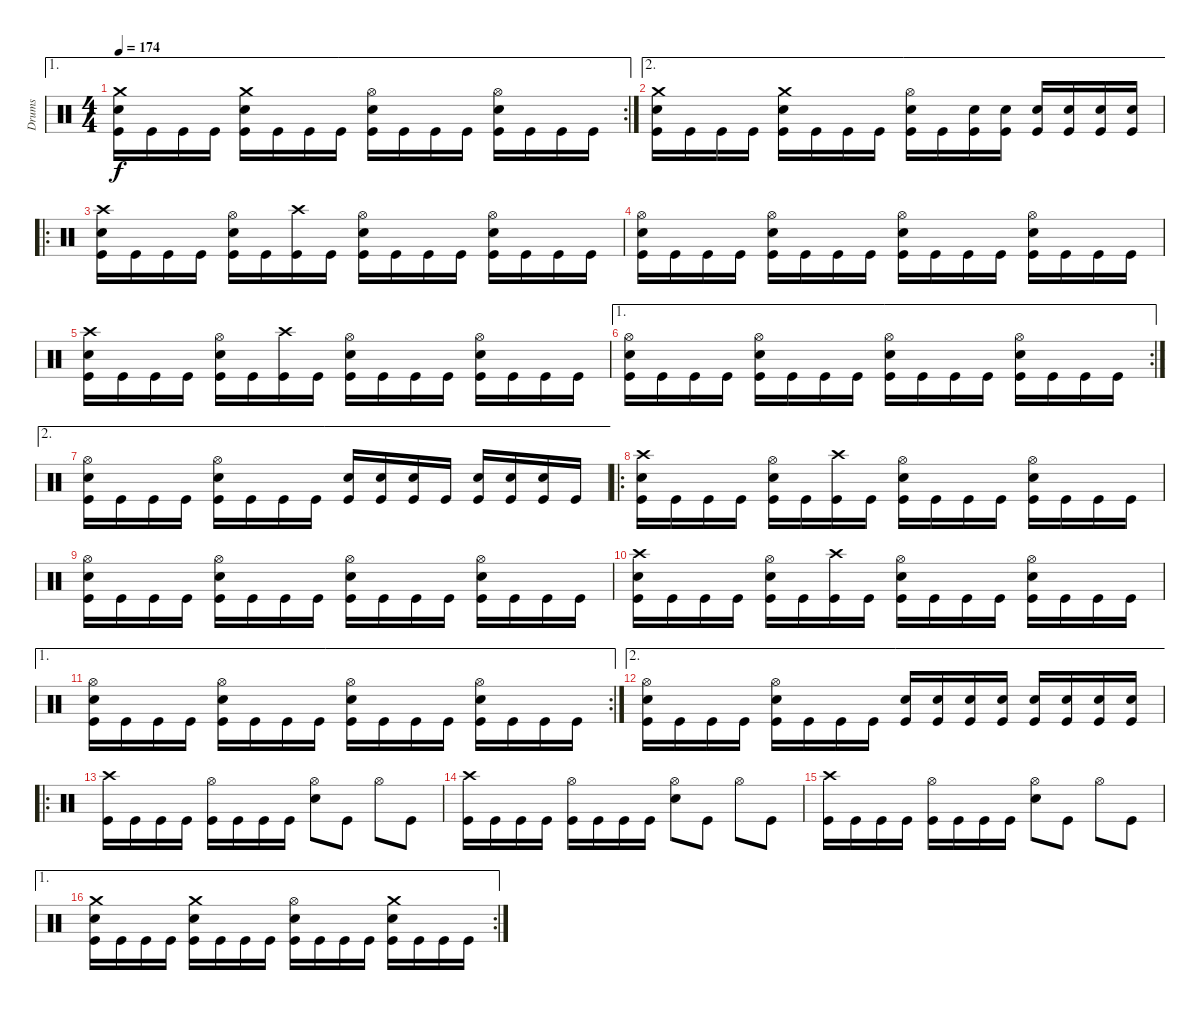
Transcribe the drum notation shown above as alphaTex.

\track ("Drums" "Drums") {instrument percussion}
\staff {score}
\articulation defaults
\ae 1
\rc 2
\ts (4 4)
\tempo 174
\clef neutral
\ks c
("Crash medium (hit)" "Electric Snare (hit)" "Kick (hit)").16{dy f} "Kick (hit)".16 "Kick (hit)".16 "Kick (hit)".16 ("Crash medium (hit)" "Electric Snare (hit)" "Kick (hit)").16 "Kick (hit)".16 "Kick (hit)".16 "Kick (hit)".16 ("Hi-Hat (open)" "Electric Snare (hit)" "Kick (hit)").16 "Kick (hit)".16 "Kick (hit)".16 "Kick (hit)".16 ("Hi-Hat (open)" "Electric Snare (hit)" "Kick (hit)").16 "Kick (hit)".16 "Kick (hit)".16 "Kick (hit)".16 |
\ae 2
("Crash medium (hit)" "Electric Snare (hit)" "Kick (hit)").16 "Kick (hit)".16 "Kick (hit)".16 "Kick (hit)".16 ("Crash medium (hit)" "Electric Snare (hit)" "Kick (hit)").16 "Kick (hit)".16 "Kick (hit)".16 "Kick (hit)".16 ("Hi-Hat (open)" "Electric Snare (hit)" "Kick (hit)").16 "Kick (hit)".16 ("Electric Snare (hit)" "Kick (hit)").16 ("Electric Snare (hit)" "Kick (hit)").16 ("Electric Snare (hit)" "Kick (hit)").16 ("Electric Snare (hit)" "Kick (hit)").16 ("Electric Snare (hit)" "Kick (hit)").16 ("Electric Snare (hit)" "Kick (hit)").16 |
\ro
("Crash high (hit)" "Electric Snare (hit)" "Kick (hit)").16 "Kick (hit)".16 "Kick (hit)".16 "Kick (hit)".16 ("Hi-Hat (open)" "Electric Snare (hit)" "Kick (hit)").16 "Kick (hit)".16 ("Crash high (hit)" "Kick (hit)").16 "Kick (hit)".16 ("Hi-Hat (open)" "Electric Snare (hit)" "Kick (hit)").16 "Kick (hit)".16 "Kick (hit)".16 "Kick (hit)".16 ("Hi-Hat (open)" "Electric Snare (hit)" "Kick (hit)").16 "Kick (hit)".16 "Kick (hit)".16 "Kick (hit)".16 |
("Hi-Hat (open)" "Electric Snare (hit)" "Kick (hit)").16 "Kick (hit)".16 "Kick (hit)".16 "Kick (hit)".16 ("Hi-Hat (open)" "Electric Snare (hit)" "Kick (hit)").16 "Kick (hit)".16 "Kick (hit)".16 "Kick (hit)".16 ("Hi-Hat (open)" "Electric Snare (hit)" "Kick (hit)").16 "Kick (hit)".16 "Kick (hit)".16 "Kick (hit)".16 ("Hi-Hat (open)" "Electric Snare (hit)" "Kick (hit)").16 "Kick (hit)".16 "Kick (hit)".16 "Kick (hit)".16 |
("Crash high (hit)" "Electric Snare (hit)" "Kick (hit)").16 "Kick (hit)".16 "Kick (hit)".16 "Kick (hit)".16 ("Hi-Hat (open)" "Electric Snare (hit)" "Kick (hit)").16 "Kick (hit)".16 ("Crash high (hit)" "Kick (hit)").16 "Kick (hit)".16 ("Hi-Hat (open)" "Electric Snare (hit)" "Kick (hit)").16 "Kick (hit)".16 "Kick (hit)".16 "Kick (hit)".16 ("Hi-Hat (open)" "Electric Snare (hit)" "Kick (hit)").16 "Kick (hit)".16 "Kick (hit)".16 "Kick (hit)".16 |
\ae 1
\rc 2
("Hi-Hat (open)" "Electric Snare (hit)" "Kick (hit)").16 "Kick (hit)".16 "Kick (hit)".16 "Kick (hit)".16 ("Hi-Hat (open)" "Electric Snare (hit)" "Kick (hit)").16 "Kick (hit)".16 "Kick (hit)".16 "Kick (hit)".16 ("Hi-Hat (open)" "Electric Snare (hit)" "Kick (hit)").16 "Kick (hit)".16 "Kick (hit)".16 "Kick (hit)".16 ("Hi-Hat (open)" "Electric Snare (hit)" "Kick (hit)").16 "Kick (hit)".16 "Kick (hit)".16 "Kick (hit)".16 |
\ae 2
("Hi-Hat (open)" "Electric Snare (hit)" "Kick (hit)").16 "Kick (hit)".16 "Kick (hit)".16 "Kick (hit)".16 ("Hi-Hat (open)" "Electric Snare (hit)" "Kick (hit)").16 "Kick (hit)".16 "Kick (hit)".16 "Kick (hit)".16 ("Electric Snare (hit)" "Kick (hit)").16 ("Electric Snare (hit)" "Kick (hit)").16 ("Electric Snare (hit)" "Kick (hit)").16 "Kick (hit)".16 ("Electric Snare (hit)" "Kick (hit)").16 ("Electric Snare (hit)" "Kick (hit)").16 ("Electric Snare (hit)" "Kick (hit)").16 "Kick (hit)".16 |
\ro
("Crash high (hit)" "Electric Snare (hit)" "Kick (hit)").16 "Kick (hit)".16 "Kick (hit)".16 "Kick (hit)".16 ("Hi-Hat (open)" "Electric Snare (hit)" "Kick (hit)").16 "Kick (hit)".16 ("Crash high (hit)" "Kick (hit)").16 "Kick (hit)".16 ("Hi-Hat (open)" "Electric Snare (hit)" "Kick (hit)").16 "Kick (hit)".16 "Kick (hit)".16 "Kick (hit)".16 ("Hi-Hat (open)" "Electric Snare (hit)" "Kick (hit)").16 "Kick (hit)".16 "Kick (hit)".16 "Kick (hit)".16 |
("Hi-Hat (open)" "Electric Snare (hit)" "Kick (hit)").16 "Kick (hit)".16 "Kick (hit)".16 "Kick (hit)".16 ("Hi-Hat (open)" "Electric Snare (hit)" "Kick (hit)").16 "Kick (hit)".16 "Kick (hit)".16 "Kick (hit)".16 ("Hi-Hat (open)" "Electric Snare (hit)" "Kick (hit)").16 "Kick (hit)".16 "Kick (hit)".16 "Kick (hit)".16 ("Hi-Hat (open)" "Electric Snare (hit)" "Kick (hit)").16 "Kick (hit)".16 "Kick (hit)".16 "Kick (hit)".16 |
("Crash high (hit)" "Electric Snare (hit)" "Kick (hit)").16 "Kick (hit)".16 "Kick (hit)".16 "Kick (hit)".16 ("Hi-Hat (open)" "Electric Snare (hit)" "Kick (hit)").16 "Kick (hit)".16 ("Crash high (hit)" "Kick (hit)").16 "Kick (hit)".16 ("Hi-Hat (open)" "Electric Snare (hit)" "Kick (hit)").16 "Kick (hit)".16 "Kick (hit)".16 "Kick (hit)".16 ("Hi-Hat (open)" "Electric Snare (hit)" "Kick (hit)").16 "Kick (hit)".16 "Kick (hit)".16 "Kick (hit)".16 |
\ae 1
\rc 2
("Hi-Hat (open)" "Electric Snare (hit)" "Kick (hit)").16 "Kick (hit)".16 "Kick (hit)".16 "Kick (hit)".16 ("Hi-Hat (open)" "Electric Snare (hit)" "Kick (hit)").16 "Kick (hit)".16 "Kick (hit)".16 "Kick (hit)".16 ("Hi-Hat (open)" "Electric Snare (hit)" "Kick (hit)").16 "Kick (hit)".16 "Kick (hit)".16 "Kick (hit)".16 ("Hi-Hat (open)" "Electric Snare (hit)" "Kick (hit)").16 "Kick (hit)".16 "Kick (hit)".16 "Kick (hit)".16 |
\ae 2
("Hi-Hat (open)" "Electric Snare (hit)" "Kick (hit)").16 "Kick (hit)".16 "Kick (hit)".16 "Kick (hit)".16 ("Hi-Hat (open)" "Electric Snare (hit)" "Kick (hit)").16 "Kick (hit)".16 "Kick (hit)".16 "Kick (hit)".16 ("Electric Snare (hit)" "Kick (hit)").16 ("Electric Snare (hit)" "Kick (hit)").16 ("Electric Snare (hit)" "Kick (hit)").16 ("Electric Snare (hit)" "Kick (hit)").16 ("Electric Snare (hit)" "Kick (hit)").16 ("Electric Snare (hit)" "Kick (hit)").16 ("Electric Snare (hit)" "Kick (hit)").16 ("Electric Snare (hit)" "Kick (hit)").16 |
\ro
("Crash high (hit)" "Kick (hit)").16 "Kick (hit)".16 "Kick (hit)".16 "Kick (hit)".16 ("Hi-Hat (open)" "Kick (hit)").16 "Kick (hit)".16 "Kick (hit)".16 "Kick (hit)".16 ("Hi-Hat (open)" "Electric Snare (hit)").8 "Kick (hit)".8 "Hi-Hat (open)".8 "Kick (hit)".8 |
("Crash high (hit)" "Kick (hit)").16 "Kick (hit)".16 "Kick (hit)".16 "Kick (hit)".16 ("Hi-Hat (open)" "Kick (hit)").16 "Kick (hit)".16 "Kick (hit)".16 "Kick (hit)".16 ("Hi-Hat (open)" "Electric Snare (hit)").8 "Kick (hit)".8 "Hi-Hat (open)".8 "Kick (hit)".8 |
("Crash high (hit)" "Kick (hit)").16 "Kick (hit)".16 "Kick (hit)".16 "Kick (hit)".16 ("Hi-Hat (open)" "Kick (hit)").16 "Kick (hit)".16 "Kick (hit)".16 "Kick (hit)".16 ("Hi-Hat (open)" "Electric Snare (hit)").8 "Kick (hit)".8 "Hi-Hat (open)".8 "Kick (hit)".8 |
\ae 1
\rc 2
("Crash medium (hit)" "Electric Snare (hit)" "Kick (hit)").16 "Kick (hit)".16 "Kick (hit)".16 "Kick (hit)".16 ("Crash medium (hit)" "Electric Snare (hit)" "Kick (hit)").16 "Kick (hit)".16 "Kick (hit)".16 "Kick (hit)".16 ("Hi-Hat (open)" "Electric Snare (hit)" "Kick (hit)").16 "Kick (hit)".16 "Kick (hit)".16 "Kick (hit)".16 ("Crash medium (hit)" "Electric Snare (hit)" "Kick (hit)").16 "Kick (hit)".16 "Kick (hit)".16 "Kick (hit)".16
